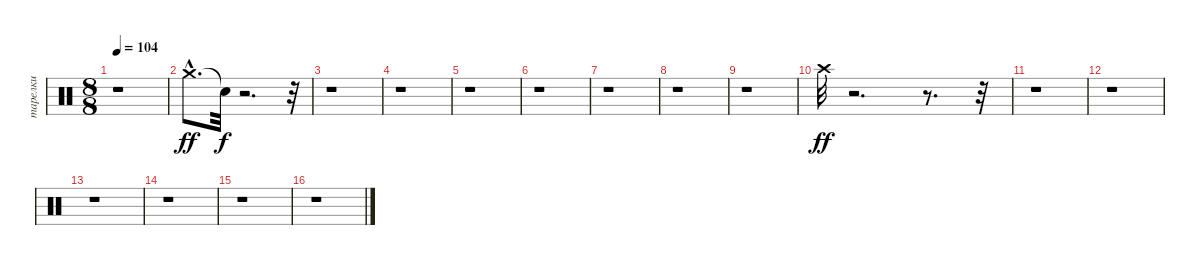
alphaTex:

\track ("тарелки" "тарелки") {instrument percussion}
\staff {score}
\articulation defaults
\ts (8 8)
\tempo 104
\clef neutral
\ks c
r.1{dy ff} |
"Crash medium (hit)"{hac}.8{d} "Snare (hit)"{t}.32{dy f} r.2{d} r.32 |
r.1 |
r.1 |
r.1 |
r.1 |
r.1 |
r.1 |
r.1 |
"Crash high (hit)".32{dy ff} r.2{d} r.8{d} r.32 |
r.1 |
r.1 |
r.1 |
r.1 |
r.1 |
r.1
